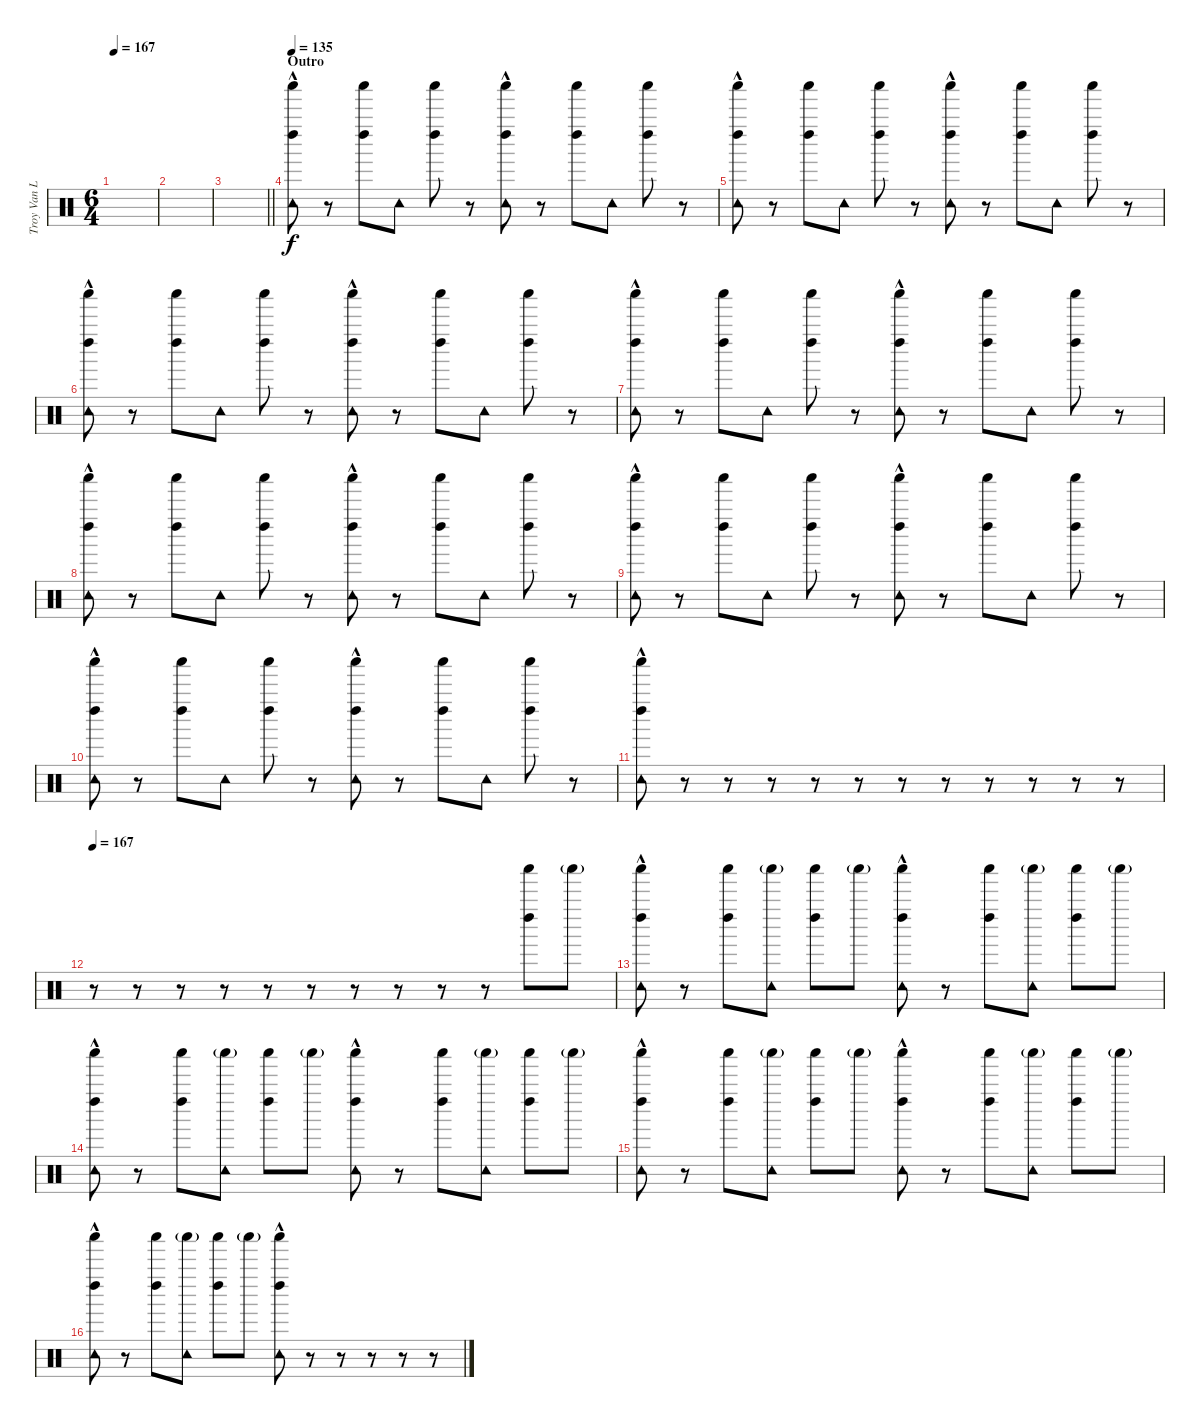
\track ("Troy Van Leeuwen (live)" "Troy Van L") {instrument percussion}
\staff {score}
\articulation defaults
\ts (6 4)
\tempo 167
\clef neutral
\ks c
|
|
\barLineRight lightlight
|
\section ("" "Outro")
\tempo 135
("Tambourine (hit)" "Left Maraca (hit)" "Shaker (hit)"{hac}).8 r.8 ("Left Maraca (hit)" "Shaker (hit)").8 "Tambourine (hit)".8 ("Left Maraca (hit)" "Shaker (hit)").8 r.8 ("Tambourine (hit)" "Left Maraca (hit)" "Shaker (hit)"{hac}).8 r.8 ("Left Maraca (hit)" "Shaker (hit)").8 "Tambourine (hit)".8 ("Left Maraca (hit)" "Shaker (hit)").8 r.8 |
("Tambourine (hit)" "Left Maraca (hit)" "Shaker (hit)"{hac}).8 r.8 ("Left Maraca (hit)" "Shaker (hit)").8 "Tambourine (hit)".8 ("Left Maraca (hit)" "Shaker (hit)").8 r.8 ("Tambourine (hit)" "Left Maraca (hit)" "Shaker (hit)"{hac}).8 r.8 ("Left Maraca (hit)" "Shaker (hit)").8 "Tambourine (hit)".8 ("Left Maraca (hit)" "Shaker (hit)").8 r.8 |
("Tambourine (hit)" "Left Maraca (hit)" "Shaker (hit)"{hac}).8 r.8 ("Left Maraca (hit)" "Shaker (hit)").8 "Tambourine (hit)".8 ("Left Maraca (hit)" "Shaker (hit)").8 r.8 ("Tambourine (hit)" "Left Maraca (hit)" "Shaker (hit)"{hac}).8 r.8 ("Left Maraca (hit)" "Shaker (hit)").8 "Tambourine (hit)".8 ("Left Maraca (hit)" "Shaker (hit)").8 r.8 |
("Tambourine (hit)" "Left Maraca (hit)" "Shaker (hit)"{hac}).8 r.8 ("Left Maraca (hit)" "Shaker (hit)").8 "Tambourine (hit)".8 ("Left Maraca (hit)" "Shaker (hit)").8 r.8 ("Tambourine (hit)" "Left Maraca (hit)" "Shaker (hit)"{hac}).8 r.8 ("Left Maraca (hit)" "Shaker (hit)").8 "Tambourine (hit)".8 ("Left Maraca (hit)" "Shaker (hit)").8 r.8 |
("Tambourine (hit)" "Left Maraca (hit)" "Shaker (hit)"{hac}).8 r.8 ("Left Maraca (hit)" "Shaker (hit)").8 "Tambourine (hit)".8 ("Left Maraca (hit)" "Shaker (hit)").8 r.8 ("Tambourine (hit)" "Left Maraca (hit)" "Shaker (hit)"{hac}).8 r.8 ("Left Maraca (hit)" "Shaker (hit)").8 "Tambourine (hit)".8 ("Left Maraca (hit)" "Shaker (hit)").8 r.8 |
("Tambourine (hit)" "Left Maraca (hit)" "Shaker (hit)"{hac}).8 r.8 ("Left Maraca (hit)" "Shaker (hit)").8 "Tambourine (hit)".8 ("Left Maraca (hit)" "Shaker (hit)").8 r.8 ("Tambourine (hit)" "Left Maraca (hit)" "Shaker (hit)"{hac}).8 r.8 ("Left Maraca (hit)" "Shaker (hit)").8 "Tambourine (hit)".8 ("Left Maraca (hit)" "Shaker (hit)").8 r.8 |
("Tambourine (hit)" "Left Maraca (hit)" "Shaker (hit)"{hac}).8 r.8 ("Left Maraca (hit)" "Shaker (hit)").8 "Tambourine (hit)".8 ("Left Maraca (hit)" "Shaker (hit)").8 r.8 ("Tambourine (hit)" "Left Maraca (hit)" "Shaker (hit)"{hac}).8 r.8 ("Left Maraca (hit)" "Shaker (hit)").8 "Tambourine (hit)".8 ("Left Maraca (hit)" "Shaker (hit)").8 r.8 |
("Tambourine (hit)" "Left Maraca (hit)" "Shaker (hit)"{hac}).8 r.8 r.8 r.8 r.8 r.8 r.8 r.8 r.8 r.8 r.8 r.8 |
\tempo 167
r.8 r.8 r.8 r.8 r.8 r.8 r.8 r.8 r.8 r.8 ("Left Maraca (hit)" "Shaker (hit)").8 "Shaker (hit)"{g}.8 |
("Tambourine (hit)" "Left Maraca (hit)" "Shaker (hit)"{hac}).8 r.8 ("Left Maraca (hit)" "Shaker (hit)").8 ("Tambourine (hit)" "Shaker (hit)"{g}).8 ("Left Maraca (hit)" "Shaker (hit)").8 "Shaker (hit)"{g}.8 ("Tambourine (hit)" "Left Maraca (hit)" "Shaker (hit)"{hac}).8 r.8 ("Left Maraca (hit)" "Shaker (hit)").8 ("Tambourine (hit)" "Shaker (hit)"{g}).8 ("Left Maraca (hit)" "Shaker (hit)").8 "Shaker (hit)"{g}.8 |
("Tambourine (hit)" "Left Maraca (hit)" "Shaker (hit)"{hac}).8 r.8 ("Left Maraca (hit)" "Shaker (hit)").8 ("Tambourine (hit)" "Shaker (hit)"{g}).8 ("Left Maraca (hit)" "Shaker (hit)").8 "Shaker (hit)"{g}.8 ("Tambourine (hit)" "Left Maraca (hit)" "Shaker (hit)"{hac}).8 r.8 ("Left Maraca (hit)" "Shaker (hit)").8 ("Tambourine (hit)" "Shaker (hit)"{g}).8 ("Left Maraca (hit)" "Shaker (hit)").8 "Shaker (hit)"{g}.8 |
("Tambourine (hit)" "Left Maraca (hit)" "Shaker (hit)"{hac}).8 r.8 ("Left Maraca (hit)" "Shaker (hit)").8 ("Tambourine (hit)" "Shaker (hit)"{g}).8 ("Left Maraca (hit)" "Shaker (hit)").8 "Shaker (hit)"{g}.8 ("Tambourine (hit)" "Left Maraca (hit)" "Shaker (hit)"{hac}).8 r.8 ("Left Maraca (hit)" "Shaker (hit)").8 ("Tambourine (hit)" "Shaker (hit)"{g}).8 ("Left Maraca (hit)" "Shaker (hit)").8 "Shaker (hit)"{g}.8 |
("Tambourine (hit)" "Left Maraca (hit)" "Shaker (hit)"{hac}).8 r.8 ("Left Maraca (hit)" "Shaker (hit)").8 ("Tambourine (hit)" "Shaker (hit)"{g}).8 ("Left Maraca (hit)" "Shaker (hit)").8 "Shaker (hit)"{g}.8 ("Tambourine (hit)" "Left Maraca (hit)" "Shaker (hit)"{hac}).8 r.8 r.8 r.8 r.8 r.8
